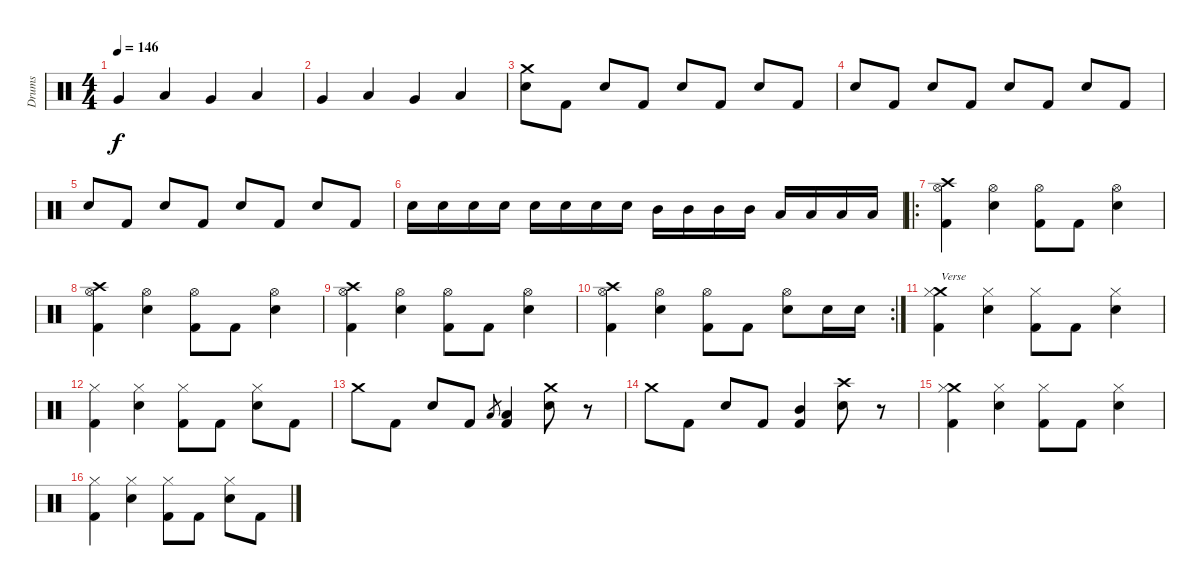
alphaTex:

\track ("Drums" "Drums") {instrument percussion}
\staff {score}
\articulation defaults
\ts (4 4)
\tempo 146
\clef neutral
\ks c "Very Low Tom (hit)".4{dy f} "Low Floor Tom (hit)".4 "Very Low Tom (hit)".4 "Low Floor Tom (hit)".4
|
"Very Low Tom (hit)".4 "Low Floor Tom (hit)".4 "Very Low Tom (hit)".4 "Low Floor Tom (hit)".4 |
("Crash medium (hit)" "Electric Snare (hit)").8 "Kick (hit) 2".8 "Electric Snare (hit)".8 "Kick (hit) 2".8 "Electric Snare (hit)".8 "Kick (hit) 2".8 "Electric Snare (hit)".8 "Kick (hit) 2".8 |
"Electric Snare (hit)".8 "Kick (hit) 2".8 "Electric Snare (hit)".8 "Kick (hit) 2".8 "Electric Snare (hit)".8 "Kick (hit) 2".8 "Electric Snare (hit)".8 "Kick (hit) 2".8 |
"Electric Snare (hit)".8 "Kick (hit) 2".8 "Electric Snare (hit)".8 "Kick (hit) 2".8 "Electric Snare (hit)".8 "Kick (hit) 2".8 "Electric Snare (hit)".8 "Kick (hit) 2".8 |
"Electric Snare (hit)".16 "Electric Snare (hit)".16 "Electric Snare (hit)".16 "Electric Snare (hit)".16 "Electric Snare (hit)".16 "Electric Snare (hit)".16 "Electric Snare (hit)".16 "Electric Snare (hit)".16 "Mid Tom (hit)".16 "Mid Tom (hit)".16 "Mid Tom (hit)".16 "Mid Tom (hit)".16 "Low Tom (hit)".16 "Low Tom (hit)".16 "Low Tom (hit)".16 "Low Tom (hit)".16 |
\ro
("Crash high (hit)" "Hi-Hat (open)" "Kick (hit) 2").4 ("Hi-Hat (open)" "Electric Snare (hit)").4 ("Hi-Hat (open)" "Kick (hit) 2").8 "Kick (hit) 2".8 ("Hi-Hat (open)" "Electric Snare (hit)").4 |
("Crash high (hit)" "Hi-Hat (open)" "Kick (hit) 2").4 ("Hi-Hat (open)" "Electric Snare (hit)").4 ("Hi-Hat (open)" "Kick (hit) 2").8 "Kick (hit) 2".8 ("Hi-Hat (open)" "Electric Snare (hit)").4 |
("Crash high (hit)" "Hi-Hat (open)" "Kick (hit) 2").4 ("Hi-Hat (open)" "Electric Snare (hit)").4 ("Hi-Hat (open)" "Kick (hit) 2").8 "Kick (hit) 2".8 ("Hi-Hat (open)" "Electric Snare (hit)").4 |
\rc 2
("Crash high (hit)" "Hi-Hat (open)" "Kick (hit) 2").4 ("Hi-Hat (open)" "Electric Snare (hit)").4 ("Hi-Hat (open)" "Kick (hit) 2").8 "Kick (hit) 2".8 ("Hi-Hat (open)" "Electric Snare (hit)").8 "Electric Snare (hit)".16 "Electric Snare (hit)".16 |
("Crash medium (hit)" "Hi-Hat (closed)" "Kick (hit) 2").4{txt "Verse"} ("Hi-Hat (closed)" "Electric Snare (hit)").4 ("Hi-Hat (closed)" "Kick (hit) 2").8 "Kick (hit) 2".8 ("Hi-Hat (closed)" "Electric Snare (hit)").4 |
("Hi-Hat (closed)" "Kick (hit) 2").4 ("Hi-Hat (closed)" "Electric Snare (hit)").4 ("Hi-Hat (closed)" "Kick (hit) 2").8 "Kick (hit) 2".8 ("Hi-Hat (closed)" "Electric Snare (hit)").8 "Kick (hit) 2".8 |
"Crash medium (hit)".8 "Kick (hit) 2".8 "Electric Snare (hit)".8 "Kick (hit) 2".8 "Low Tom (hit)".8{gr} ("Low Tom (hit)" "Kick (hit) 2").4 ("Crash medium (hit)" "Electric Snare (hit)").8 r.8 |
"Crash medium (hit)".8 "Kick (hit) 2".8 "Electric Snare (hit)".8 "Kick (hit) 2".8 ("Mid Tom (hit)" "Kick (hit) 2").4 ("Crash high (hit)" "Electric Snare (hit)").8 r.8 |
("Crash medium (hit)" "Hi-Hat (closed)" "Kick (hit) 2").4 ("Hi-Hat (closed)" "Electric Snare (hit)").4 ("Hi-Hat (closed)" "Kick (hit) 2").8 "Kick (hit) 2".8 ("Hi-Hat (closed)" "Electric Snare (hit)").4 |
("Hi-Hat (closed)" "Kick (hit) 2").4 ("Hi-Hat (closed)" "Electric Snare (hit)").4 ("Hi-Hat (closed)" "Kick (hit) 2").8 "Kick (hit) 2".8 ("Hi-Hat (closed)" "Electric Snare (hit)").8 "Kick (hit) 2".8
